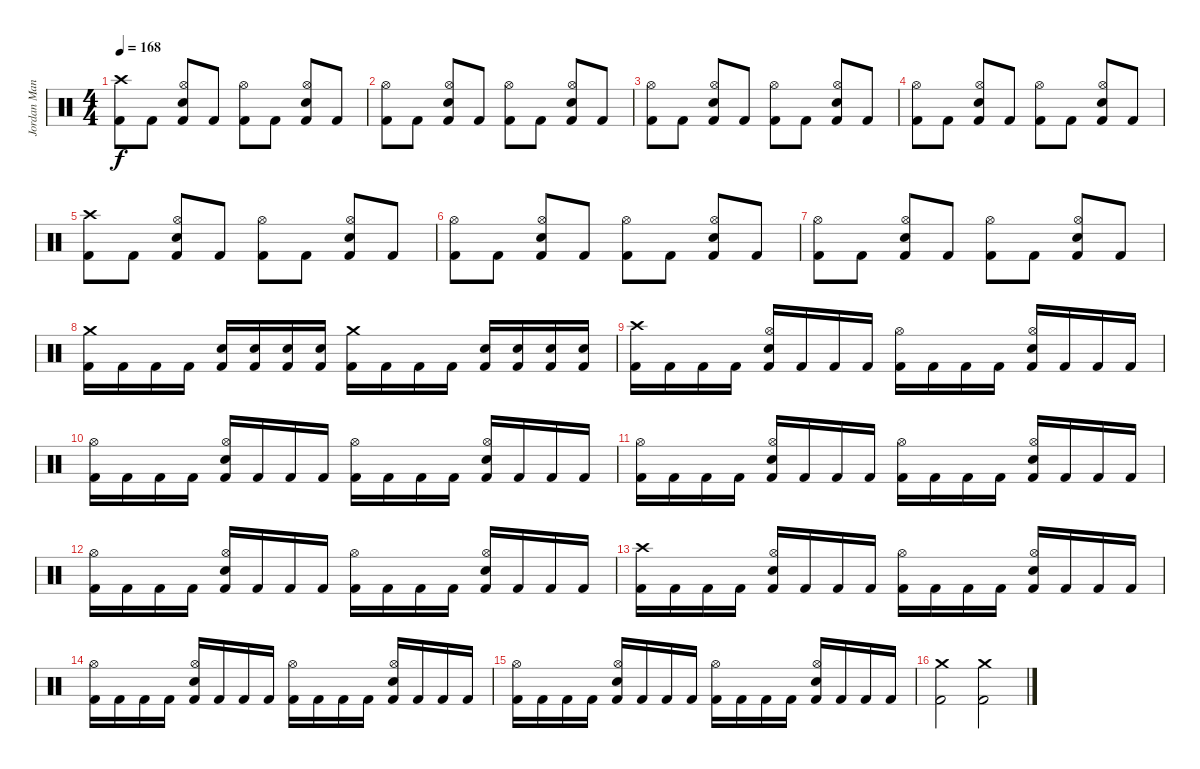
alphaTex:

\track ("Jordan Mancino" "Jordan Man") {instrument percussion}
\staff {score}
\articulation defaults
\ts (4 4)
\tempo 168
\clef neutral
\ks c
("Crash high (hit)" "Kick (hit) 2").8{dy f} "Kick (hit) 2".8 ("Hi-Hat (open)" "Electric Snare (hit)" "Kick (hit) 2").8 "Kick (hit) 2".8 ("Hi-Hat (open)" "Kick (hit) 2").8 "Kick (hit) 2".8 ("Hi-Hat (open)" "Electric Snare (hit)" "Kick (hit) 2").8 "Kick (hit) 2".8 |
("Hi-Hat (open)" "Kick (hit) 2").8 "Kick (hit) 2".8 ("Hi-Hat (open)" "Electric Snare (hit)" "Kick (hit) 2").8 "Kick (hit) 2".8 ("Hi-Hat (open)" "Kick (hit) 2").8 "Kick (hit) 2".8 ("Hi-Hat (open)" "Electric Snare (hit)" "Kick (hit) 2").8 "Kick (hit) 2".8 |
("Hi-Hat (open)" "Kick (hit) 2").8 "Kick (hit) 2".8 ("Hi-Hat (open)" "Electric Snare (hit)" "Kick (hit) 2").8 "Kick (hit) 2".8 ("Hi-Hat (open)" "Kick (hit) 2").8 "Kick (hit) 2".8 ("Hi-Hat (open)" "Electric Snare (hit)" "Kick (hit) 2").8 "Kick (hit) 2".8 |
("Hi-Hat (open)" "Kick (hit) 2").8 "Kick (hit) 2".8 ("Hi-Hat (open)" "Electric Snare (hit)" "Kick (hit) 2").8 "Kick (hit) 2".8 ("Hi-Hat (open)" "Kick (hit) 2").8 "Kick (hit) 2".8 ("Hi-Hat (open)" "Electric Snare (hit)" "Kick (hit) 2").8 "Kick (hit) 2".8 |
("Crash high (hit)" "Kick (hit) 2").8 "Kick (hit) 2".8 ("Hi-Hat (open)" "Electric Snare (hit)" "Kick (hit) 2").8 "Kick (hit) 2".8 ("Hi-Hat (open)" "Kick (hit) 2").8 "Kick (hit) 2".8 ("Hi-Hat (open)" "Electric Snare (hit)" "Kick (hit) 2").8 "Kick (hit) 2".8 |
("Hi-Hat (open)" "Kick (hit) 2").8 "Kick (hit) 2".8 ("Hi-Hat (open)" "Electric Snare (hit)" "Kick (hit) 2").8 "Kick (hit) 2".8 ("Hi-Hat (open)" "Kick (hit) 2").8 "Kick (hit) 2".8 ("Hi-Hat (open)" "Electric Snare (hit)" "Kick (hit) 2").8 "Kick (hit) 2".8 |
("Hi-Hat (open)" "Kick (hit) 2").8 "Kick (hit) 2".8 ("Hi-Hat (open)" "Electric Snare (hit)" "Kick (hit) 2").8 "Kick (hit) 2".8 ("Hi-Hat (open)" "Kick (hit) 2").8 "Kick (hit) 2".8 ("Hi-Hat (open)" "Electric Snare (hit)" "Kick (hit) 2").8 "Kick (hit) 2".8 |
("Crash medium (hit)" "Kick (hit) 2").16 "Kick (hit) 2".16 "Kick (hit) 2".16 "Kick (hit) 2".16 ("Electric Snare (hit)" "Kick (hit) 2").16 ("Electric Snare (hit)" "Kick (hit) 2").16 ("Electric Snare (hit)" "Kick (hit) 2").16 ("Electric Snare (hit)" "Kick (hit) 2").16 ("Crash medium (hit)" "Kick (hit) 2").16 "Kick (hit) 2".16 "Kick (hit) 2".16 "Kick (hit) 2".16 ("Electric Snare (hit)" "Kick (hit) 2").16 ("Electric Snare (hit)" "Kick (hit) 2").16 ("Electric Snare (hit)" "Kick (hit) 2").16 ("Electric Snare (hit)" "Kick (hit) 2").16 |
("Crash high (hit)" "Kick (hit) 2").16 "Kick (hit) 2".16 "Kick (hit) 2".16 "Kick (hit) 2".16 ("Hi-Hat (open)" "Electric Snare (hit)" "Kick (hit) 2").16 "Kick (hit) 2".16 "Kick (hit) 2".16 "Kick (hit) 2".16 ("Hi-Hat (open)" "Kick (hit) 2").16 "Kick (hit) 2".16 "Kick (hit) 2".16 "Kick (hit) 2".16 ("Hi-Hat (open)" "Electric Snare (hit)" "Kick (hit) 2").16 "Kick (hit) 2".16 "Kick (hit) 2".16 "Kick (hit) 2".16 |
("Hi-Hat (open)" "Kick (hit) 2").16 "Kick (hit) 2".16 "Kick (hit) 2".16 "Kick (hit) 2".16 ("Hi-Hat (open)" "Electric Snare (hit)" "Kick (hit) 2").16 "Kick (hit) 2".16 "Kick (hit) 2".16 "Kick (hit) 2".16 ("Hi-Hat (open)" "Kick (hit) 2").16 "Kick (hit) 2".16 "Kick (hit) 2".16 "Kick (hit) 2".16 ("Hi-Hat (open)" "Electric Snare (hit)" "Kick (hit) 2").16 "Kick (hit) 2".16 "Kick (hit) 2".16 "Kick (hit) 2".16 |
("Hi-Hat (open)" "Kick (hit) 2").16 "Kick (hit) 2".16 "Kick (hit) 2".16 "Kick (hit) 2".16 ("Hi-Hat (open)" "Electric Snare (hit)" "Kick (hit) 2").16 "Kick (hit) 2".16 "Kick (hit) 2".16 "Kick (hit) 2".16 ("Hi-Hat (open)" "Kick (hit) 2").16 "Kick (hit) 2".16 "Kick (hit) 2".16 "Kick (hit) 2".16 ("Hi-Hat (open)" "Electric Snare (hit)" "Kick (hit) 2").16 "Kick (hit) 2".16 "Kick (hit) 2".16 "Kick (hit) 2".16 |
("Hi-Hat (open)" "Kick (hit) 2").16 "Kick (hit) 2".16 "Kick (hit) 2".16 "Kick (hit) 2".16 ("Hi-Hat (open)" "Electric Snare (hit)" "Kick (hit) 2").16 "Kick (hit) 2".16 "Kick (hit) 2".16 "Kick (hit) 2".16 ("Hi-Hat (open)" "Kick (hit) 2").16 "Kick (hit) 2".16 "Kick (hit) 2".16 "Kick (hit) 2".16 ("Hi-Hat (open)" "Electric Snare (hit)" "Kick (hit) 2").16 "Kick (hit) 2".16 "Kick (hit) 2".16 "Kick (hit) 2".16 |
("Crash high (hit)" "Kick (hit) 2").16 "Kick (hit) 2".16 "Kick (hit) 2".16 "Kick (hit) 2".16 ("Hi-Hat (open)" "Electric Snare (hit)" "Kick (hit) 2").16 "Kick (hit) 2".16 "Kick (hit) 2".16 "Kick (hit) 2".16 ("Hi-Hat (open)" "Kick (hit) 2").16 "Kick (hit) 2".16 "Kick (hit) 2".16 "Kick (hit) 2".16 ("Hi-Hat (open)" "Electric Snare (hit)" "Kick (hit) 2").16 "Kick (hit) 2".16 "Kick (hit) 2".16 "Kick (hit) 2".16 |
("Hi-Hat (open)" "Kick (hit) 2").16 "Kick (hit) 2".16 "Kick (hit) 2".16 "Kick (hit) 2".16 ("Hi-Hat (open)" "Electric Snare (hit)" "Kick (hit) 2").16 "Kick (hit) 2".16 "Kick (hit) 2".16 "Kick (hit) 2".16 ("Hi-Hat (open)" "Kick (hit) 2").16 "Kick (hit) 2".16 "Kick (hit) 2".16 "Kick (hit) 2".16 ("Hi-Hat (open)" "Electric Snare (hit)" "Kick (hit) 2").16 "Kick (hit) 2".16 "Kick (hit) 2".16 "Kick (hit) 2".16 |
("Hi-Hat (open)" "Kick (hit) 2").16 "Kick (hit) 2".16 "Kick (hit) 2".16 "Kick (hit) 2".16 ("Hi-Hat (open)" "Electric Snare (hit)" "Kick (hit) 2").16 "Kick (hit) 2".16 "Kick (hit) 2".16 "Kick (hit) 2".16 ("Hi-Hat (open)" "Kick (hit) 2").16 "Kick (hit) 2".16 "Kick (hit) 2".16 "Kick (hit) 2".16 ("Hi-Hat (open)" "Electric Snare (hit)" "Kick (hit) 2").16 "Kick (hit) 2".16 "Kick (hit) 2".16 "Kick (hit) 2".16 |
("Crash medium (hit)" "Kick (hit) 2").2 ("Crash medium (hit)" "Kick (hit) 2").2
